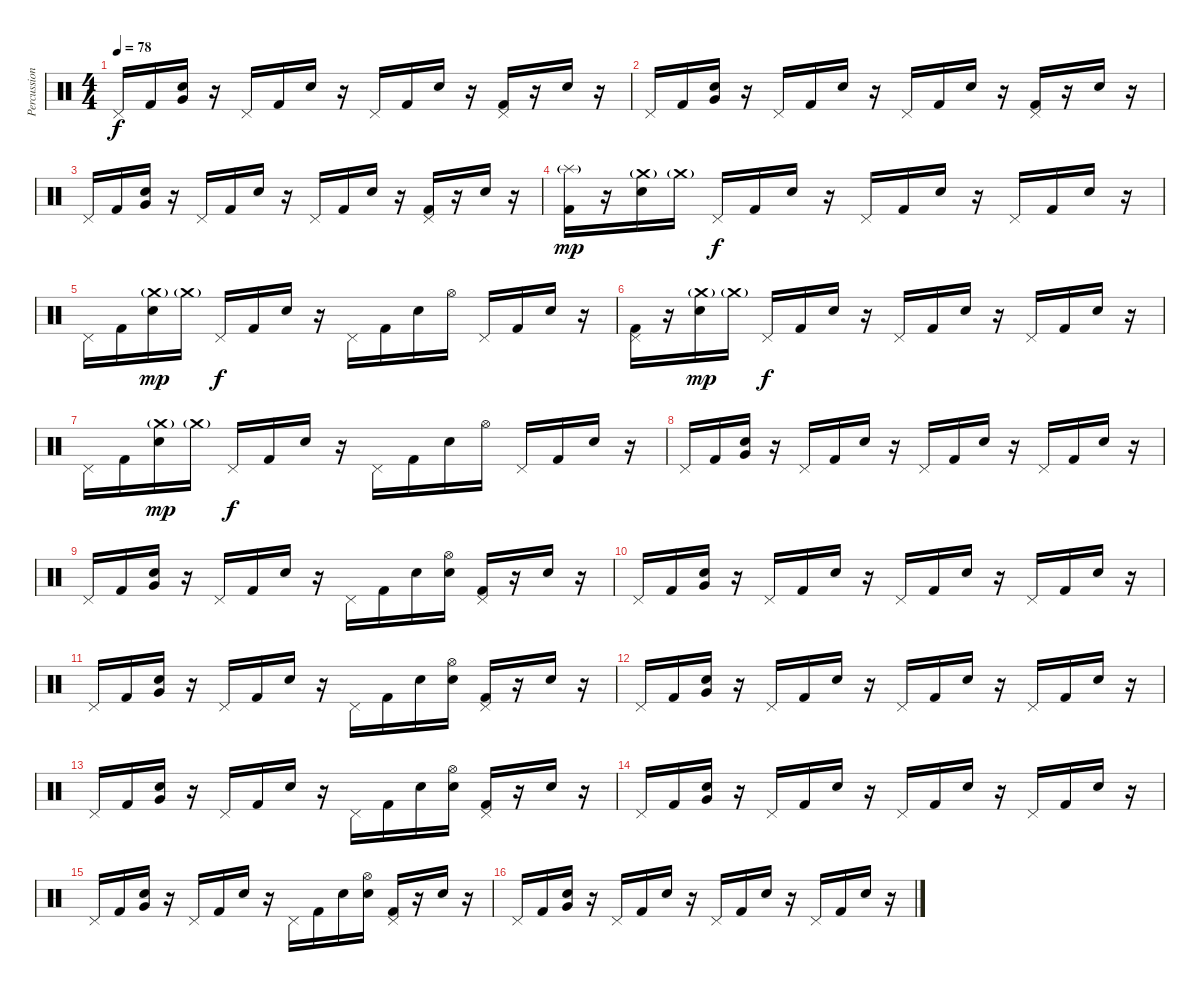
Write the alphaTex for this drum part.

\track ("Percussion" "Percussion") {instrument percussion}
\staff {score}
\articulation defaults
\ts (4 4)
\tempo 78
\clef neutral
\ks c "Pedal Hi-Hat (hit)".16{dy f} "Kick (hit) 2".16
("Electric Snare (hit)" "Very Low Tom (hit)").16 r.16 "Pedal Hi-Hat (hit)".16 "Kick (hit) 2".16 "Electric Snare (hit)".16 r.16 "Pedal Hi-Hat (hit)".16 "Kick (hit) 2".16 "Electric Snare (hit)".16 r.16 ("Pedal Hi-Hat (hit)" "Kick (hit) 2").16 r.16 "Electric Snare (hit)".16 r.16 |
"Pedal Hi-Hat (hit)".16 "Kick (hit) 2".16 ("Electric Snare (hit)" "Very Low Tom (hit)").16 r.16 "Pedal Hi-Hat (hit)".16 "Kick (hit) 2".16 "Electric Snare (hit)".16 r.16 "Pedal Hi-Hat (hit)".16 "Kick (hit) 2".16 "Electric Snare (hit)".16 r.16 ("Pedal Hi-Hat (hit)" "Kick (hit) 2").16 r.16 "Electric Snare (hit)".16 r.16 |
"Pedal Hi-Hat (hit)".16 "Kick (hit) 2".16 ("Electric Snare (hit)" "Very Low Tom (hit)").16 r.16 "Pedal Hi-Hat (hit)".16 "Kick (hit) 2".16 "Electric Snare (hit)".16 r.16 "Pedal Hi-Hat (hit)".16 "Kick (hit) 2".16 "Electric Snare (hit)".16 r.16 ("Pedal Hi-Hat (hit)" "Kick (hit) 2").16 r.16 "Electric Snare (hit)".16 r.16 |
("Splash (hit)"{g} "Kick (hit) 2").16{dy mp} r.16 ("Crash medium (hit)"{g} "Electric Snare (hit)").16 "Crash medium (hit)"{g}.16 "Pedal Hi-Hat (hit)".16{dy f} "Kick (hit) 2".16 "Electric Snare (hit)".16 r.16 "Pedal Hi-Hat (hit)".16 "Kick (hit) 2".16 "Electric Snare (hit)".16 r.16 "Pedal Hi-Hat (hit)".16 "Kick (hit) 2".16 "Electric Snare (hit)".16 r.16 |
"Pedal Hi-Hat (hit)".16 "Kick (hit) 2".16 ("Crash medium (hit)"{g} "Electric Snare (hit)").16{dy mp} "Crash medium (hit)"{g}.16 "Pedal Hi-Hat (hit)".16{dy f} "Kick (hit) 2".16 "Electric Snare (hit)".16 r.16 "Pedal Hi-Hat (hit)".16 "Kick (hit) 2".16 "Electric Snare (hit)".16 "Hi-Hat (open)".16 "Pedal Hi-Hat (hit)".16 "Kick (hit) 2".16 "Electric Snare (hit)".16 r.16 |
("Pedal Hi-Hat (hit)" "Kick (hit) 2").16 r.16 ("Crash medium (hit)"{g} "Electric Snare (hit)").16{dy mp} "Crash medium (hit)"{g}.16 "Pedal Hi-Hat (hit)".16{dy f} "Kick (hit) 2".16 "Electric Snare (hit)".16 r.16 "Pedal Hi-Hat (hit)".16 "Kick (hit) 2".16 "Electric Snare (hit)".16 r.16 "Pedal Hi-Hat (hit)".16 "Kick (hit) 2".16 "Electric Snare (hit)".16 r.16 |
"Pedal Hi-Hat (hit)".16 "Kick (hit) 2".16 ("Crash medium (hit)"{g} "Electric Snare (hit)").16{dy mp} "Crash medium (hit)"{g}.16 "Pedal Hi-Hat (hit)".16{dy f} "Kick (hit) 2".16 "Electric Snare (hit)".16 r.16 "Pedal Hi-Hat (hit)".16 "Kick (hit) 2".16 "Electric Snare (hit)".16 "Hi-Hat (open)".16 "Pedal Hi-Hat (hit)".16 "Kick (hit) 2".16 "Electric Snare (hit)".16 r.16 |
"Pedal Hi-Hat (hit)".16 "Kick (hit) 2".16 ("Electric Snare (hit)" "Very Low Tom (hit)").16 r.16 "Pedal Hi-Hat (hit)".16 "Kick (hit) 2".16 "Electric Snare (hit)".16 r.16 "Pedal Hi-Hat (hit)".16 "Kick (hit) 2".16 "Electric Snare (hit)".16 r.16 "Pedal Hi-Hat (hit)".16 "Kick (hit) 2".16 "Electric Snare (hit)".16 r.16 |
"Pedal Hi-Hat (hit)".16 "Kick (hit) 2".16 ("Electric Snare (hit)" "Very Low Tom (hit)").16 r.16 "Pedal Hi-Hat (hit)".16 "Kick (hit) 2".16 "Electric Snare (hit)".16 r.16 "Pedal Hi-Hat (hit)".16 "Kick (hit) 2".16 "Electric Snare (hit)".16 ("Hi-Hat (open)" "Electric Snare (hit)").16 ("Pedal Hi-Hat (hit)" "Kick (hit) 2").16 r.16 "Electric Snare (hit)".16 r.16 |
"Pedal Hi-Hat (hit)".16 "Kick (hit) 2".16 ("Electric Snare (hit)" "Very Low Tom (hit)").16 r.16 "Pedal Hi-Hat (hit)".16 "Kick (hit) 2".16 "Electric Snare (hit)".16 r.16 "Pedal Hi-Hat (hit)".16 "Kick (hit) 2".16 "Electric Snare (hit)".16 r.16 "Pedal Hi-Hat (hit)".16 "Kick (hit) 2".16 "Electric Snare (hit)".16 r.16 |
"Pedal Hi-Hat (hit)".16 "Kick (hit) 2".16 ("Electric Snare (hit)" "Very Low Tom (hit)").16 r.16 "Pedal Hi-Hat (hit)".16 "Kick (hit) 2".16 "Electric Snare (hit)".16 r.16 "Pedal Hi-Hat (hit)".16 "Kick (hit) 2".16 "Electric Snare (hit)".16 ("Hi-Hat (open)" "Electric Snare (hit)").16 ("Pedal Hi-Hat (hit)" "Kick (hit) 2").16 r.16 "Electric Snare (hit)".16 r.16 |
"Pedal Hi-Hat (hit)".16 "Kick (hit) 2".16 ("Electric Snare (hit)" "Very Low Tom (hit)").16 r.16 "Pedal Hi-Hat (hit)".16 "Kick (hit) 2".16 "Electric Snare (hit)".16 r.16 "Pedal Hi-Hat (hit)".16 "Kick (hit) 2".16 "Electric Snare (hit)".16 r.16 "Pedal Hi-Hat (hit)".16 "Kick (hit) 2".16 "Electric Snare (hit)".16 r.16 |
"Pedal Hi-Hat (hit)".16 "Kick (hit) 2".16 ("Electric Snare (hit)" "Very Low Tom (hit)").16 r.16 "Pedal Hi-Hat (hit)".16 "Kick (hit) 2".16 "Electric Snare (hit)".16 r.16 "Pedal Hi-Hat (hit)".16 "Kick (hit) 2".16 "Electric Snare (hit)".16 ("Hi-Hat (open)" "Electric Snare (hit)").16 ("Pedal Hi-Hat (hit)" "Kick (hit) 2").16 r.16 "Electric Snare (hit)".16 r.16 |
"Pedal Hi-Hat (hit)".16 "Kick (hit) 2".16 ("Electric Snare (hit)" "Very Low Tom (hit)").16 r.16 "Pedal Hi-Hat (hit)".16 "Kick (hit) 2".16 "Electric Snare (hit)".16 r.16 "Pedal Hi-Hat (hit)".16 "Kick (hit) 2".16 "Electric Snare (hit)".16 r.16 "Pedal Hi-Hat (hit)".16 "Kick (hit) 2".16 "Electric Snare (hit)".16 r.16 |
"Pedal Hi-Hat (hit)".16 "Kick (hit) 2".16 ("Electric Snare (hit)" "Very Low Tom (hit)").16 r.16 "Pedal Hi-Hat (hit)".16 "Kick (hit) 2".16 "Electric Snare (hit)".16 r.16 "Pedal Hi-Hat (hit)".16 "Kick (hit) 2".16 "Electric Snare (hit)".16 ("Hi-Hat (open)" "Electric Snare (hit)").16 ("Pedal Hi-Hat (hit)" "Kick (hit) 2").16 r.16 "Electric Snare (hit)".16 r.16 |
"Pedal Hi-Hat (hit)".16 "Kick (hit) 2".16 ("Electric Snare (hit)" "Very Low Tom (hit)").16 r.16 "Pedal Hi-Hat (hit)".16 "Kick (hit) 2".16 "Electric Snare (hit)".16 r.16 "Pedal Hi-Hat (hit)".16 "Kick (hit) 2".16 "Electric Snare (hit)".16 r.16 "Pedal Hi-Hat (hit)".16 "Kick (hit) 2".16 "Electric Snare (hit)".16 r.16
